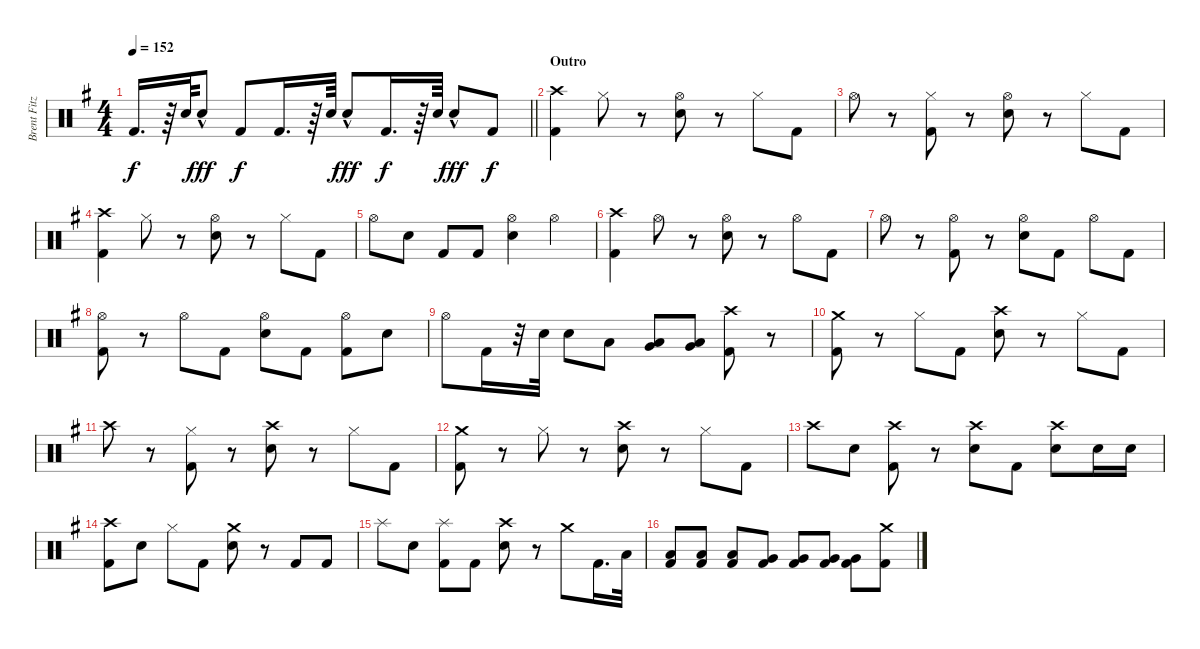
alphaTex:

\track ("Brent Fitz" "Brent Fitz") {instrument percussion}
\staff {score}
\articulation defaults
\ts (4 4)
\tempo 152
\clef neutral
\barLineRight lightlight
\ks eminor "Kick (hit) 2".16{d dy f}
r.64 "Snare (hit) 2".64 "Snare (hit) 2"{hac}.8{dy fff} "Kick (hit) 2".8{dy f} "Kick (hit) 2".16{d} r.64 "Snare (hit) 2".64 "Snare (hit) 2"{hac}.8{dy fff} "Kick (hit) 2".16{d dy f} r.64 "Snare (hit) 2".64 "Snare (hit) 2"{hac}.8{dy fff} "Kick (hit) 2".8{dy f} |
\section ("" "Outro")
("Crash high (hit)" "Kick (hit) 2").4 "Hi-Hat (closed)".8 r.8 ("Hi-Hat (open)" "Snare (hit) 2").8 r.8 "Hi-Hat (closed)".8 "Kick (hit) 2".8 |
"Hi-Hat (open)".8 r.8 ("Hi-Hat (closed)" "Kick (hit) 2").8 r.8 ("Hi-Hat (open)" "Snare (hit) 2").8 r.8 "Hi-Hat (closed)".8 "Kick (hit) 2".8 |
("Crash high (hit)" "Kick (hit) 2").4 "Hi-Hat (closed)".8 r.8 ("Hi-Hat (open)" "Snare (hit) 2").8 r.8 "Hi-Hat (closed)".8 "Kick (hit) 2".8 |
"Hi-Hat (open)".8 "Snare (hit) 2".8 "Kick (hit) 2".8 "Kick (hit) 2".8 ("Hi-Hat (open)" "Snare (hit) 2").4 "Hi-Hat (open)".4 |
("Crash high (hit)" "Kick (hit) 2").4 "Hi-Hat (open)".8 r.8 ("Hi-Hat (open)" "Snare (hit) 2").8 r.8 "Hi-Hat (open)".8 "Kick (hit) 2".8 |
"Hi-Hat (open)".8 r.8 ("Hi-Hat (open)" "Kick (hit) 2").8 r.8 ("Hi-Hat (open)" "Snare (hit) 2").8 "Kick (hit) 2".8 "Hi-Hat (open)".8 "Kick (hit) 2".8 |
("Hi-Hat (open)" "Kick (hit) 2").8 r.8 "Hi-Hat (open)".8 "Kick (hit) 2".8 ("Hi-Hat (open)" "Snare (hit) 2").8 "Kick (hit) 2".8 ("Hi-Hat (open)" "Kick (hit) 2").8 "Snare (hit) 2".8 |
"Hi-Hat (open)".8 "Kick (hit) 2".16 r.32 "Snare (hit) 2".32 "Snare (hit) 2".8 "Low Tom (hit)".8 ("Low Tom (hit)" "Very Low Tom (hit)").8 ("Low Tom (hit)" "Very Low Tom (hit)").8 ("Crash high (hit)" "Kick (hit) 2").8 r.8 |
("Crash medium (hit)" "Kick (hit) 2").8 r.8 "Hi-Hat (closed)".8 "Kick (hit) 2".8 ("Crash high (hit)" "Snare (hit) 2").8 r.8 "Hi-Hat (closed)".8 "Kick (hit) 2".8 |
"Crash high (hit)".8 r.8 ("Hi-Hat (closed)" "Kick (hit) 2").8 r.8 ("Crash high (hit)" "Snare (hit) 2").8 r.8 "Hi-Hat (closed)".8 "Kick (hit) 2".8 |
("Crash medium (hit)" "Kick (hit) 2").8 r.8 "Hi-Hat (closed)".8 r.8 ("Crash high (hit)" "Snare (hit) 2").8 r.8 "Hi-Hat (closed)".8 "Kick (hit) 2".8 |
"Crash high (hit)".8 "Snare (hit) 2".8 ("Crash high (hit)" "Kick (hit) 2").8 r.8 ("Crash high (hit)" "Snare (hit) 2").8 "Kick (hit) 2".8 ("Crash high (hit)" "Snare (hit) 2").8 "Snare (hit) 2".16 "Snare (hit) 2".16 |
("Crash high (hit)" "Kick (hit) 2").8 "Snare (hit) 2".8 "Hi-Hat (closed)".8 "Kick (hit) 2".8 ("Crash medium (hit)" "Snare (hit) 2").8 r.8 "Kick (hit) 2".8 "Kick (hit) 2".8 |
"Splash (hit)".8 "Snare (hit) 2".8 ("Splash (hit)" "Kick (hit) 2").8 "Kick (hit) 2".8 ("Crash high (hit)" "Snare (hit) 2").8 r.8 "Crash medium (hit)".8 "Kick (hit) 2".16{d} "Low Tom (hit)".32 |
("Low Tom (hit)" "Kick (hit) 2").8 ("Low Tom (hit)" "Kick (hit) 2").8 ("Low Tom (hit)" "Kick (hit) 2").8 ("Very Low Tom (hit)" "Kick (hit) 2").8 ("Very Low Tom (hit)" "Kick (hit) 2").8 ("Very Low Tom (hit)" "Kick (hit) 2").8 ("Very Low Tom (hit)" "Kick (hit) 2").8 ("Crash medium (hit)" "Kick (hit) 2").8
